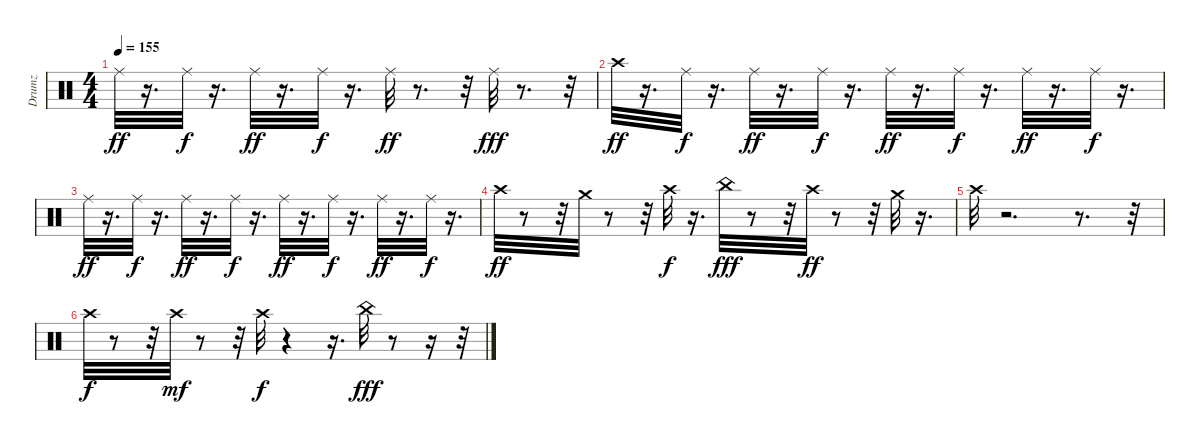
\track ("Drumz" "Drumz") {instrument percussion}
\staff {score}
\articulation defaults
\ts (4 4)
\tempo 155
\clef neutral
\ks c "Ride (middle)".32{dy ff}
r.16{d} "Ride (middle)".32{dy f} r.16{d} "Ride (middle)".32{dy ff} r.16{d} "Ride (middle)".32{dy f} r.16{d} "Ride (middle)".32{dy ff} r.8{d} r.32 "Ride (middle)".32{dy fff} r.8{d} r.32 |
"Crash high (hit)".32{dy ff} r.16{d} "Ride (middle)".32{dy f} r.16{d} "Ride (middle)".32{dy ff} r.16{d} "Ride (middle)".32{dy f} r.16{d} "Ride (middle)".32{dy ff} r.16{d} "Ride (middle)".32{dy f} r.16{d} "Ride (middle)".32{dy ff} r.16{d} "Ride (middle)".32{dy f} r.16{d} |
"Ride (middle)".32{dy ff} r.16{d} "Ride (middle)".32{dy f} r.16{d} "Ride (middle)".32{dy ff} r.16{d} "Ride (middle)".32{dy f} r.16{d} "Ride (middle)".32{dy ff} r.16{d} "Ride (middle)".32{dy f} r.16{d} "Ride (middle)".32{dy ff} r.16{d} "Ride (middle)".32{dy f} r.16{d} |
"Crash high (hit)".32{dy ff} r.8 r.32 "Crash medium (hit)".32 r.8 r.32 "Crash high (hit)".32{dy f} r.16{d} "China (hit)".32{dy fff} r.8 r.32 "Crash high (hit)".32{dy ff} r.8 r.32 "Crash medium (hit)".32 r.16{d} |
"Crash high (hit)".32 r.2{d} r.8{d} r.32 |
"Crash high (hit)".32{dy f} r.8 r.32 "Crash high (hit)".32{dy mf} r.8 r.32 "Crash high (hit)".32{dy f} r.4 r.16{d} "China (hit)".32{dy fff} r.8 r.16 r.32
